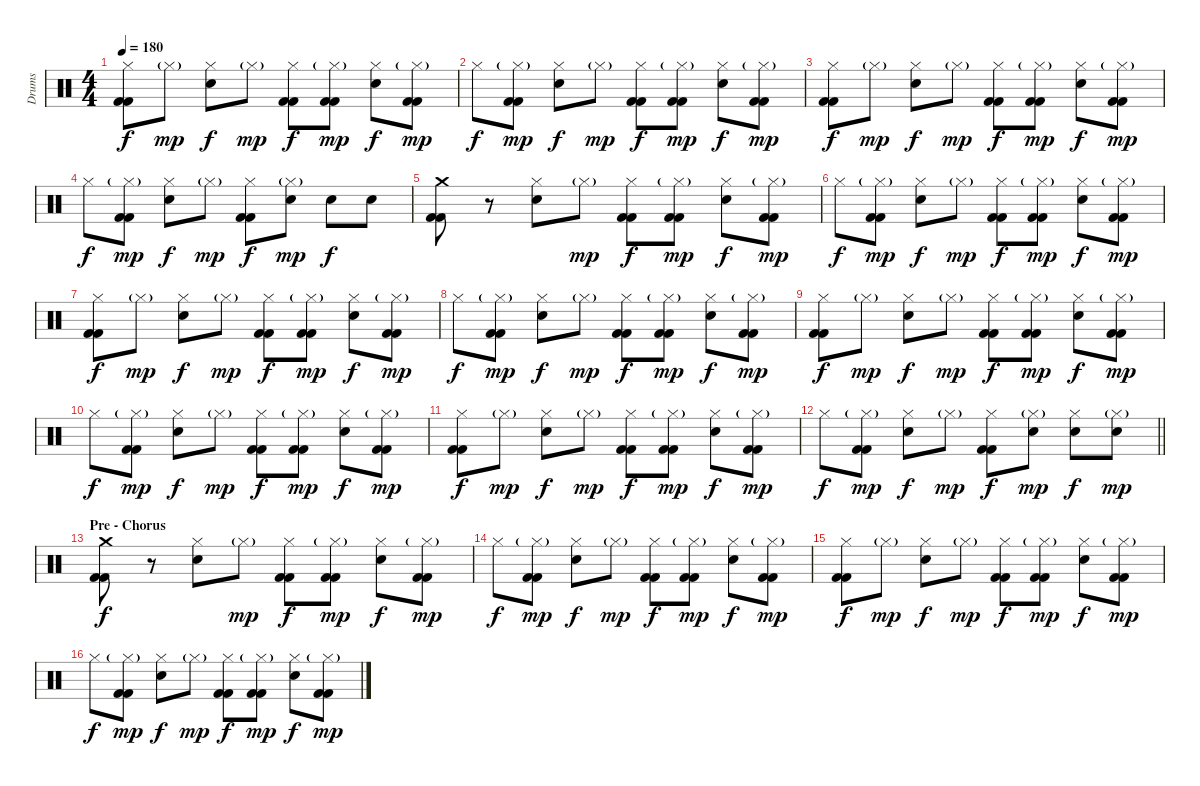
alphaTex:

\track ("Drums" "Drums") {instrument percussion}
\staff {score}
\articulation defaults
\ts (4 4)
\tempo 180
\clef neutral
\ks c
("Hi-Hat (closed)" "Kick (hit) 2" "Kick (hit) 2").8{dy f} "Hi-Hat (closed)"{g}.8{dy mp} ("Hi-Hat (closed)" "Snare (hit) 2").8{dy f} "Hi-Hat (closed)"{g}.8{dy mp} ("Hi-Hat (closed)" "Kick (hit) 2" "Kick (hit) 2").8{dy f} ("Hi-Hat (closed)"{g} "Kick (hit) 2" "Kick (hit) 2").8{dy mp} ("Hi-Hat (closed)" "Snare (hit) 2").8{dy f} ("Hi-Hat (closed)"{g} "Kick (hit) 2" "Kick (hit) 2").8{dy mp} |
"Hi-Hat (closed)".8{dy f} ("Hi-Hat (closed)"{g} "Kick (hit) 2" "Kick (hit) 2").8{dy mp} ("Hi-Hat (closed)" "Snare (hit) 2").8{dy f} "Hi-Hat (closed)"{g}.8{dy mp} ("Hi-Hat (closed)" "Kick (hit) 2" "Kick (hit) 2").8{dy f} ("Hi-Hat (closed)"{g} "Kick (hit) 2" "Kick (hit) 2").8{dy mp} ("Hi-Hat (closed)" "Snare (hit) 2").8{dy f} ("Hi-Hat (closed)"{g} "Kick (hit) 2" "Kick (hit) 2").8{dy mp} |
("Hi-Hat (closed)" "Kick (hit) 2" "Kick (hit) 2").8{dy f} "Hi-Hat (closed)"{g}.8{dy mp} ("Hi-Hat (closed)" "Snare (hit) 2").8{dy f} "Hi-Hat (closed)"{g}.8{dy mp} ("Hi-Hat (closed)" "Kick (hit) 2" "Kick (hit) 2").8{dy f} ("Hi-Hat (closed)"{g} "Kick (hit) 2" "Kick (hit) 2").8{dy mp} ("Hi-Hat (closed)" "Snare (hit) 2").8{dy f} ("Hi-Hat (closed)"{g} "Kick (hit) 2" "Kick (hit) 2").8{dy mp} |
"Hi-Hat (closed)".8{dy f} ("Hi-Hat (closed)"{g} "Kick (hit) 2" "Kick (hit) 2").8{dy mp} ("Hi-Hat (closed)" "Snare (hit) 2").8{dy f} "Hi-Hat (closed)"{g}.8{dy mp} ("Hi-Hat (closed)" "Kick (hit) 2" "Kick (hit) 2").8{dy f} ("Hi-Hat (closed)"{g} "Snare (hit) 2").8{dy mp} "Snare (hit) 2".8{dy f} "Snare (hit) 2".8 |
("Crash medium (hit)" "Kick (hit) 2" "Kick (hit) 2").8 r.8 ("Hi-Hat (closed)" "Snare (hit) 2").8 "Hi-Hat (closed)"{g}.8{dy mp} ("Hi-Hat (closed)" "Kick (hit) 2" "Kick (hit) 2").8{dy f} ("Hi-Hat (closed)"{g} "Kick (hit) 2" "Kick (hit) 2").8{dy mp} ("Hi-Hat (closed)" "Snare (hit) 2").8{dy f} ("Hi-Hat (closed)"{g} "Kick (hit) 2" "Kick (hit) 2").8{dy mp} |
"Hi-Hat (closed)".8{dy f} ("Hi-Hat (closed)"{g} "Kick (hit) 2" "Kick (hit) 2").8{dy mp} ("Hi-Hat (closed)" "Snare (hit) 2").8{dy f} "Hi-Hat (closed)"{g}.8{dy mp} ("Hi-Hat (closed)" "Kick (hit) 2" "Kick (hit) 2").8{dy f} ("Hi-Hat (closed)"{g} "Kick (hit) 2" "Kick (hit) 2").8{dy mp} ("Hi-Hat (closed)" "Snare (hit) 2").8{dy f} ("Hi-Hat (closed)"{g} "Kick (hit) 2" "Kick (hit) 2").8{dy mp} |
("Hi-Hat (closed)" "Kick (hit) 2" "Kick (hit) 2").8{dy f} "Hi-Hat (closed)"{g}.8{dy mp} ("Hi-Hat (closed)" "Snare (hit) 2").8{dy f} "Hi-Hat (closed)"{g}.8{dy mp} ("Hi-Hat (closed)" "Kick (hit) 2" "Kick (hit) 2").8{dy f} ("Hi-Hat (closed)"{g} "Kick (hit) 2" "Kick (hit) 2").8{dy mp} ("Hi-Hat (closed)" "Snare (hit) 2").8{dy f} ("Hi-Hat (closed)"{g} "Kick (hit) 2" "Kick (hit) 2").8{dy mp} |
"Hi-Hat (closed)".8{dy f} ("Hi-Hat (closed)"{g} "Kick (hit) 2" "Kick (hit) 2").8{dy mp} ("Hi-Hat (closed)" "Snare (hit) 2").8{dy f} "Hi-Hat (closed)"{g}.8{dy mp} ("Hi-Hat (closed)" "Kick (hit) 2" "Kick (hit) 2").8{dy f} ("Hi-Hat (closed)"{g} "Kick (hit) 2" "Kick (hit) 2").8{dy mp} ("Hi-Hat (closed)" "Snare (hit) 2").8{dy f} ("Hi-Hat (closed)"{g} "Kick (hit) 2" "Kick (hit) 2").8{dy mp} |
("Hi-Hat (closed)" "Kick (hit) 2" "Kick (hit) 2").8{dy f} "Hi-Hat (closed)"{g}.8{dy mp} ("Hi-Hat (closed)" "Snare (hit) 2").8{dy f} "Hi-Hat (closed)"{g}.8{dy mp} ("Hi-Hat (closed)" "Kick (hit) 2" "Kick (hit) 2").8{dy f} ("Hi-Hat (closed)"{g} "Kick (hit) 2" "Kick (hit) 2").8{dy mp} ("Hi-Hat (closed)" "Snare (hit) 2").8{dy f} ("Hi-Hat (closed)"{g} "Kick (hit) 2" "Kick (hit) 2").8{dy mp} |
"Hi-Hat (closed)".8{dy f} ("Hi-Hat (closed)"{g} "Kick (hit) 2" "Kick (hit) 2").8{dy mp} ("Hi-Hat (closed)" "Snare (hit) 2").8{dy f} "Hi-Hat (closed)"{g}.8{dy mp} ("Hi-Hat (closed)" "Kick (hit) 2" "Kick (hit) 2").8{dy f} ("Hi-Hat (closed)"{g} "Kick (hit) 2" "Kick (hit) 2").8{dy mp} ("Hi-Hat (closed)" "Snare (hit) 2").8{dy f} ("Hi-Hat (closed)"{g} "Kick (hit) 2" "Kick (hit) 2").8{dy mp} |
("Hi-Hat (closed)" "Kick (hit) 2" "Kick (hit) 2").8{dy f} "Hi-Hat (closed)"{g}.8{dy mp} ("Hi-Hat (closed)" "Snare (hit) 2").8{dy f} "Hi-Hat (closed)"{g}.8{dy mp} ("Hi-Hat (closed)" "Kick (hit) 2" "Kick (hit) 2").8{dy f} ("Hi-Hat (closed)"{g} "Kick (hit) 2" "Kick (hit) 2").8{dy mp} ("Hi-Hat (closed)" "Snare (hit) 2").8{dy f} ("Hi-Hat (closed)"{g} "Kick (hit) 2" "Kick (hit) 2").8{dy mp} |
\barLineRight lightlight "Hi-Hat (closed)".8{dy f}
("Hi-Hat (closed)"{g} "Kick (hit) 2" "Kick (hit) 2").8{dy mp} ("Hi-Hat (closed)" "Snare (hit) 2").8{dy f} "Hi-Hat (closed)"{g}.8{dy mp} ("Hi-Hat (closed)" "Kick (hit) 2" "Kick (hit) 2").8{dy f} ("Hi-Hat (closed)"{g} "Snare (hit) 2").8{dy mp} ("Hi-Hat (closed)" "Snare (hit) 2").8{dy f} ("Hi-Hat (closed)"{g} "Snare (hit) 2").8{dy mp} |
\section ("" "Pre - Chorus")
("Crash medium (hit)" "Kick (hit) 2" "Kick (hit) 2").8{dy f} r.8 ("Hi-Hat (closed)" "Snare (hit) 2").8 "Hi-Hat (closed)"{g}.8{dy mp} ("Hi-Hat (closed)" "Kick (hit) 2" "Kick (hit) 2").8{dy f} ("Hi-Hat (closed)"{g} "Kick (hit) 2" "Kick (hit) 2").8{dy mp} ("Hi-Hat (closed)" "Snare (hit) 2").8{dy f} ("Hi-Hat (closed)"{g} "Kick (hit) 2" "Kick (hit) 2").8{dy mp} |
"Hi-Hat (closed)".8{dy f} ("Hi-Hat (closed)"{g} "Kick (hit) 2" "Kick (hit) 2").8{dy mp} ("Hi-Hat (closed)" "Snare (hit) 2").8{dy f} "Hi-Hat (closed)"{g}.8{dy mp} ("Hi-Hat (closed)" "Kick (hit) 2" "Kick (hit) 2").8{dy f} ("Hi-Hat (closed)"{g} "Kick (hit) 2" "Kick (hit) 2").8{dy mp} ("Hi-Hat (closed)" "Snare (hit) 2").8{dy f} ("Hi-Hat (closed)"{g} "Kick (hit) 2" "Kick (hit) 2").8{dy mp} |
("Hi-Hat (closed)" "Kick (hit) 2" "Kick (hit) 2").8{dy f} "Hi-Hat (closed)"{g}.8{dy mp} ("Hi-Hat (closed)" "Snare (hit) 2").8{dy f} "Hi-Hat (closed)"{g}.8{dy mp} ("Hi-Hat (closed)" "Kick (hit) 2" "Kick (hit) 2").8{dy f} ("Hi-Hat (closed)"{g} "Kick (hit) 2" "Kick (hit) 2").8{dy mp} ("Hi-Hat (closed)" "Snare (hit) 2").8{dy f} ("Hi-Hat (closed)"{g} "Kick (hit) 2" "Kick (hit) 2").8{dy mp} |
"Hi-Hat (closed)".8{dy f} ("Hi-Hat (closed)"{g} "Kick (hit) 2" "Kick (hit) 2").8{dy mp} ("Hi-Hat (closed)" "Snare (hit) 2").8{dy f} "Hi-Hat (closed)"{g}.8{dy mp} ("Hi-Hat (closed)" "Kick (hit) 2" "Kick (hit) 2").8{dy f} ("Hi-Hat (closed)"{g} "Kick (hit) 2" "Kick (hit) 2").8{dy mp} ("Hi-Hat (closed)" "Snare (hit) 2").8{dy f} ("Hi-Hat (closed)"{g} "Kick (hit) 2" "Kick (hit) 2").8{dy mp}
